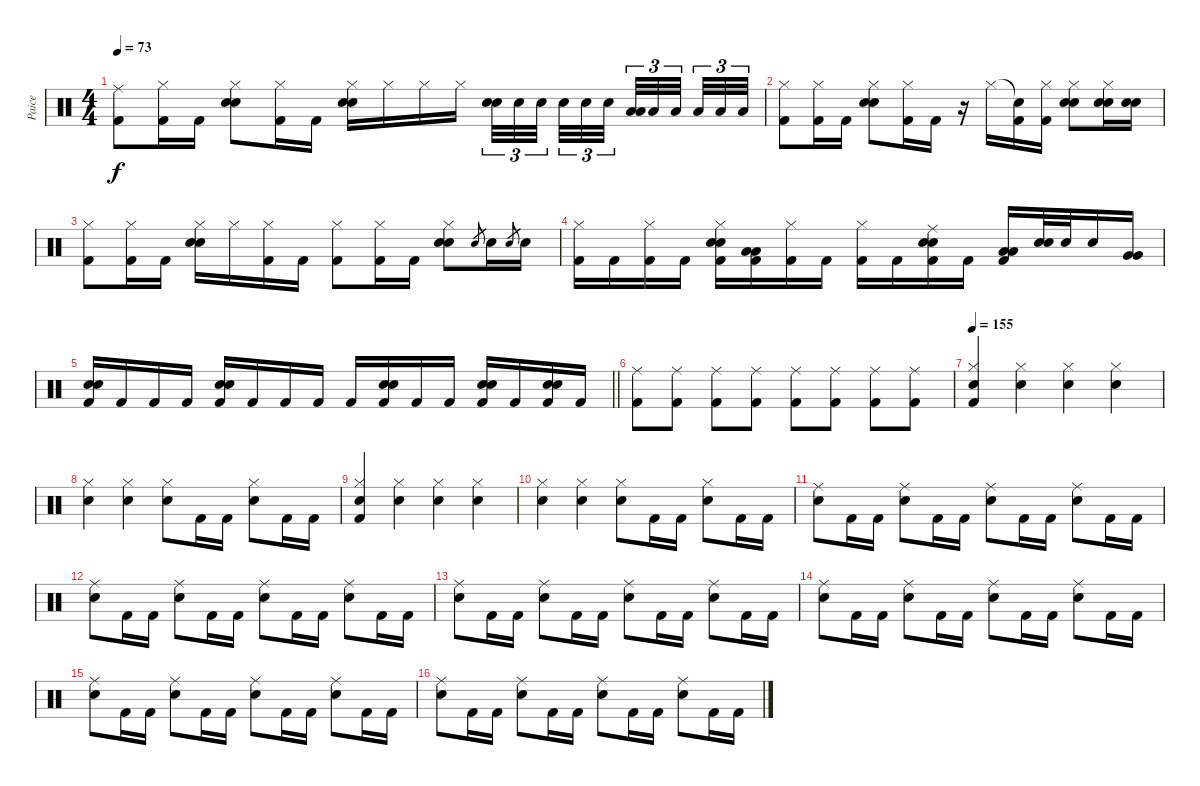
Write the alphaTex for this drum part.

\track ("Paice" "Paice") {instrument percussion}
\staff {score}
\articulation defaults
\ts (4 4)
\tempo 73
\clef neutral
\ks c
("Ride (middle)" "Kick (hit) 2").8{dy f} ("Hi-Hat (closed)" "Kick (hit) 2").16 "Kick (hit) 2".16 ("Hi-Hat (closed)" "Electric Snare (hit)" "Electric Snare (hit)").8 ("Hi-Hat (closed)" "Kick (hit) 2").16 "Kick (hit) 2".16 ("Hi-Hat (closed)" "Electric Snare (hit)" "Electric Snare (hit)").16 "Hi-Hat (closed)".16 "Hi-Hat (closed)".16 "Hi-Hat (closed)".16 ("Electric Snare (hit)" "Electric Snare (hit)").32{tu (3 2)} "Electric Snare (hit)".32{tu (3 2)} "Electric Snare (hit)".32{tu (3 2) beam splitsecondary} "Electric Snare (hit)".32{tu (3 2)} "Electric Snare (hit)".32{tu (3 2)} "Electric Snare (hit)".32{tu (3 2) beam splitsecondary} ("Low Tom (hit)" "Low Tom (hit)").32{tu (3 2)} "Low Tom (hit)".32{tu (3 2)} "Low Tom (hit)".32{tu (3 2) beam splitsecondary} "Low Tom (hit)".32{tu (3 2)} "Low Tom (hit)".32{tu (3 2)} "Low Tom (hit)".32{tu (3 2)} |
("Hi-Hat (closed)" "Kick (hit) 2").8 ("Hi-Hat (closed)" "Kick (hit) 2").16 "Kick (hit) 2".16 ("Hi-Hat (closed)" "Electric Snare (hit)" "Electric Snare (hit)").8 ("Hi-Hat (closed)" "Kick (hit) 2").16 "Kick (hit) 2".16 r.16 "Hi-Hat (closed)".16 ("Snare (hit)"{t} "Kick (hit) 2").16 ("Hi-Hat (closed)" "Kick (hit) 2").16 ("Hi-Hat (closed)" "Electric Snare (hit)" "Electric Snare (hit)").8 ("Hi-Hat (closed)" "Electric Snare (hit)" "Electric Snare (hit)").16 ("Electric Snare (hit)" "Electric Snare (hit)").16 |
("Hi-Hat (closed)" "Kick (hit) 2").8 ("Hi-Hat (closed)" "Kick (hit) 2").16 "Kick (hit) 2".16 ("Hi-Hat (closed)" "Electric Snare (hit)" "Electric Snare (hit)").16 "Hi-Hat (closed)".16 ("Hi-Hat (closed)" "Kick (hit) 2").16 "Kick (hit) 2".16 ("Hi-Hat (closed)" "Kick (hit) 2").8 ("Hi-Hat (closed)" "Kick (hit) 2").16 "Kick (hit) 2".16 ("Hi-Hat (closed)" "Electric Snare (hit)" "Electric Snare (hit)").8 "Electric Snare (hit)".8{gr} "Electric Snare (hit)".16 "Electric Snare (hit)".8{gr} "Electric Snare (hit)".16 |
("Hi-Hat (closed)" "Kick (hit) 2").16 "Kick (hit) 2".16 ("Hi-Hat (closed)" "Kick (hit) 2").16 "Kick (hit) 2".16 ("Hi-Hat (closed)" "Electric Snare (hit)" "Electric Snare (hit)" "Kick (hit) 2").16 ("Low Tom (hit)" "Low Tom (hit)" "Kick (hit) 2").16 ("Hi-Hat (closed)" "Kick (hit) 2").16 "Kick (hit) 2".16 ("Hi-Hat (closed)" "Kick (hit) 2").16 "Kick (hit) 2".16 ("Ride (middle)" "Electric Snare (hit)" "Electric Snare (hit)" "Kick (hit) 2").16 "Kick (hit) 2".16 ("Low Tom (hit)" "Low Tom (hit)" "Kick (hit) 2").16 ("Electric Snare (hit)" "Electric Snare (hit)").32 "Electric Snare (hit)".32 "Electric Snare (hit)".16 ("Very Low Tom (hit)" "Very Low Tom (hit)").16 |
\barLineRight lightlight
("Electric Snare (hit)" "Electric Snare (hit)" "Kick (hit) 2").16 "Kick (hit) 2".16 "Kick (hit) 2".16 "Kick (hit) 2".16 ("Electric Snare (hit)" "Electric Snare (hit)" "Kick (hit) 2").16 "Kick (hit) 2".16 "Kick (hit) 2".16 "Kick (hit) 2".16 "Kick (hit) 2".16 ("Electric Snare (hit)" "Electric Snare (hit)" "Kick (hit) 2").16 "Kick (hit) 2".16 "Kick (hit) 2".16 ("Electric Snare (hit)" "Electric Snare (hit)" "Kick (hit) 2").16 "Kick (hit) 2".16 ("Electric Snare (hit)" "Electric Snare (hit)" "Kick (hit) 2").16 "Kick (hit) 2".16 |
("Ride (middle)" "Kick (hit) 2").8 ("Ride (middle)" "Kick (hit) 2").8 ("Ride (middle)" "Kick (hit) 2").8 ("Ride (middle)" "Kick (hit) 2").8 ("Ride (middle)" "Kick (hit) 2").8 ("Ride (middle)" "Kick (hit) 2").8 ("Ride (middle)" "Kick (hit) 2").8 ("Ride (middle)" "Kick (hit) 2").8 |
\tempo 155
("Hi-Hat (closed)" "Snare (hit) 2" "Kick (hit) 2").4 ("Hi-Hat (closed)" "Snare (hit) 2").4 ("Hi-Hat (closed)" "Snare (hit) 2").4 ("Hi-Hat (closed)" "Snare (hit) 2").4 |
("Hi-Hat (closed)" "Snare (hit) 2").4 ("Hi-Hat (closed)" "Snare (hit) 2").4 ("Hi-Hat (closed)" "Snare (hit) 2").8 "Kick (hit) 2".16 "Kick (hit) 2".16 ("Hi-Hat (closed)" "Snare (hit) 2").8 "Kick (hit) 2".16 "Kick (hit) 2".16 |
("Hi-Hat (closed)" "Snare (hit) 2" "Kick (hit) 2").4 ("Hi-Hat (closed)" "Snare (hit) 2").4 ("Hi-Hat (closed)" "Snare (hit) 2").4 ("Hi-Hat (closed)" "Snare (hit) 2").4 |
("Hi-Hat (closed)" "Snare (hit) 2").4 ("Hi-Hat (closed)" "Snare (hit) 2").4 ("Hi-Hat (closed)" "Snare (hit) 2").8 "Kick (hit) 2".16 "Kick (hit) 2".16 ("Hi-Hat (closed)" "Snare (hit) 2").8 "Kick (hit) 2".16 "Kick (hit) 2".16 |
("Ride (middle)" "Snare (hit) 2").8 "Kick (hit) 2".16 "Kick (hit) 2".16 ("Ride (middle)" "Snare (hit) 2").8 "Kick (hit) 2".16 "Kick (hit) 2".16 ("Ride (middle)" "Snare (hit) 2").8 "Kick (hit) 2".16 "Kick (hit) 2".16 ("Ride (middle)" "Snare (hit) 2").8 "Kick (hit) 2".16 "Kick (hit) 2".16 |
("Ride (middle)" "Snare (hit) 2").8 "Kick (hit) 2".16 "Kick (hit) 2".16 ("Ride (middle)" "Snare (hit) 2").8 "Kick (hit) 2".16 "Kick (hit) 2".16 ("Ride (middle)" "Snare (hit) 2").8 "Kick (hit) 2".16 "Kick (hit) 2".16 ("Ride (middle)" "Snare (hit) 2").8 "Kick (hit) 2".16 "Kick (hit) 2".16 |
("Ride (middle)" "Snare (hit) 2").8 "Kick (hit) 2".16 "Kick (hit) 2".16 ("Ride (middle)" "Snare (hit) 2").8 "Kick (hit) 2".16 "Kick (hit) 2".16 ("Ride (middle)" "Snare (hit) 2").8 "Kick (hit) 2".16 "Kick (hit) 2".16 ("Ride (middle)" "Snare (hit) 2").8 "Kick (hit) 2".16 "Kick (hit) 2".16 |
("Ride (middle)" "Snare (hit) 2").8 "Kick (hit) 2".16 "Kick (hit) 2".16 ("Ride (middle)" "Snare (hit) 2").8 "Kick (hit) 2".16 "Kick (hit) 2".16 ("Ride (middle)" "Snare (hit) 2").8 "Kick (hit) 2".16 "Kick (hit) 2".16 ("Ride (middle)" "Snare (hit) 2").8 "Kick (hit) 2".16 "Kick (hit) 2".16 |
("Ride (middle)" "Snare (hit) 2").8 "Kick (hit) 2".16 "Kick (hit) 2".16 ("Ride (middle)" "Snare (hit) 2").8 "Kick (hit) 2".16 "Kick (hit) 2".16 ("Ride (middle)" "Snare (hit) 2").8 "Kick (hit) 2".16 "Kick (hit) 2".16 ("Ride (middle)" "Snare (hit) 2").8 "Kick (hit) 2".16 "Kick (hit) 2".16 |
("Ride (middle)" "Snare (hit) 2").8 "Kick (hit) 2".16 "Kick (hit) 2".16 ("Ride (middle)" "Snare (hit) 2").8 "Kick (hit) 2".16 "Kick (hit) 2".16 ("Ride (middle)" "Snare (hit) 2").8 "Kick (hit) 2".16 "Kick (hit) 2".16 ("Ride (middle)" "Snare (hit) 2").8 "Kick (hit) 2".16 "Kick (hit) 2".16
